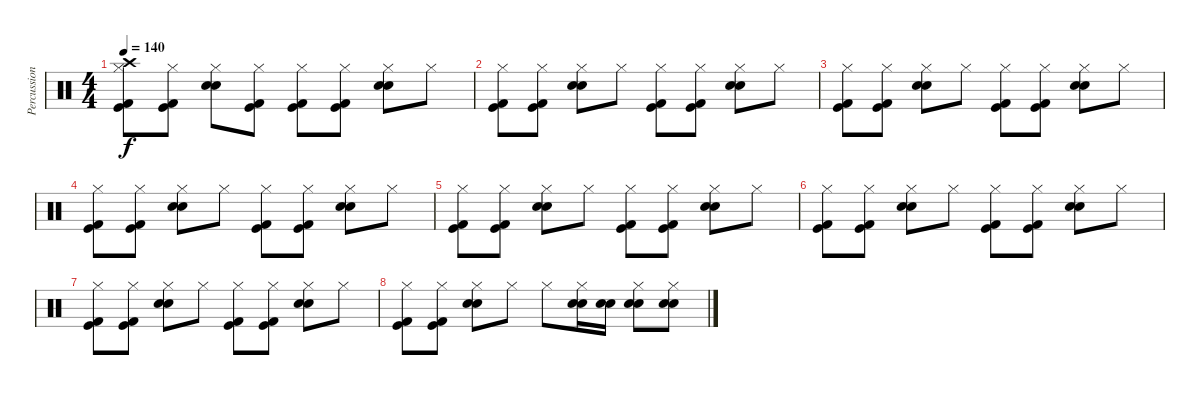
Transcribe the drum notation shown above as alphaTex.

\track ("Percussion" "Percussion") {instrument percussion}
\staff {score}
\articulation defaults
\ts (4 4)
\tempo 140
\clef neutral
\ks c
("Hi-Hat (closed)" "Crash high (hit)" "Kick (hit) 2" "Kick (hit)").8{dy f} ("Hi-Hat (closed)" "Kick (hit) 2" "Kick (hit)").8 ("Hi-Hat (closed)" "Electric Snare (hit)" "Snare (hit) 2").8 ("Hi-Hat (closed)" "Kick (hit) 2" "Kick (hit)").8 ("Hi-Hat (closed)" "Kick (hit) 2" "Kick (hit)").8 ("Hi-Hat (closed)" "Kick (hit) 2" "Kick (hit)").8 ("Hi-Hat (closed)" "Electric Snare (hit)" "Snare (hit) 2").8 "Hi-Hat (closed)".8 |
("Hi-Hat (closed)" "Kick (hit) 2" "Kick (hit)").8 ("Hi-Hat (closed)" "Kick (hit) 2" "Kick (hit)").8 ("Hi-Hat (closed)" "Electric Snare (hit)" "Snare (hit) 2").8 "Hi-Hat (closed)".8 ("Hi-Hat (closed)" "Kick (hit) 2" "Kick (hit)").8 ("Hi-Hat (closed)" "Kick (hit) 2" "Kick (hit)").8 ("Hi-Hat (closed)" "Electric Snare (hit)" "Snare (hit) 2").8 "Hi-Hat (closed)".8 |
("Hi-Hat (closed)" "Kick (hit) 2" "Kick (hit)").8 ("Hi-Hat (closed)" "Kick (hit) 2" "Kick (hit)").8 ("Hi-Hat (closed)" "Electric Snare (hit)" "Snare (hit) 2").8 "Hi-Hat (closed)".8 ("Hi-Hat (closed)" "Kick (hit) 2" "Kick (hit)").8 ("Hi-Hat (closed)" "Kick (hit) 2" "Kick (hit)").8 ("Hi-Hat (closed)" "Electric Snare (hit)" "Snare (hit) 2").8 "Hi-Hat (closed)".8 |
("Hi-Hat (closed)" "Kick (hit) 2" "Kick (hit)").8 ("Hi-Hat (closed)" "Kick (hit) 2" "Kick (hit)").8 ("Hi-Hat (closed)" "Electric Snare (hit)" "Snare (hit) 2").8 "Hi-Hat (closed)".8 ("Hi-Hat (closed)" "Kick (hit) 2" "Kick (hit)").8 ("Hi-Hat (closed)" "Kick (hit) 2" "Kick (hit)").8 ("Hi-Hat (closed)" "Electric Snare (hit)" "Snare (hit) 2").8 "Hi-Hat (closed)".8 |
("Hi-Hat (closed)" "Kick (hit) 2" "Kick (hit)").8 ("Hi-Hat (closed)" "Kick (hit) 2" "Kick (hit)").8 ("Hi-Hat (closed)" "Electric Snare (hit)" "Snare (hit) 2").8 "Hi-Hat (closed)".8 ("Hi-Hat (closed)" "Kick (hit) 2" "Kick (hit)").8 ("Hi-Hat (closed)" "Kick (hit) 2" "Kick (hit)").8 ("Hi-Hat (closed)" "Electric Snare (hit)" "Snare (hit) 2").8 "Hi-Hat (closed)".8 |
("Hi-Hat (closed)" "Kick (hit) 2" "Kick (hit)").8 ("Hi-Hat (closed)" "Kick (hit) 2" "Kick (hit)").8 ("Hi-Hat (closed)" "Electric Snare (hit)" "Snare (hit) 2").8 "Hi-Hat (closed)".8 ("Hi-Hat (closed)" "Kick (hit) 2" "Kick (hit)").8 ("Hi-Hat (closed)" "Kick (hit) 2" "Kick (hit)").8 ("Hi-Hat (closed)" "Electric Snare (hit)" "Snare (hit) 2").8 "Hi-Hat (closed)".8 |
("Hi-Hat (closed)" "Kick (hit) 2" "Kick (hit)").8 ("Hi-Hat (closed)" "Kick (hit) 2" "Kick (hit)").8 ("Hi-Hat (closed)" "Electric Snare (hit)" "Snare (hit) 2").8 "Hi-Hat (closed)".8 ("Hi-Hat (closed)" "Kick (hit) 2" "Kick (hit)").8 ("Hi-Hat (closed)" "Kick (hit) 2" "Kick (hit)").8 ("Hi-Hat (closed)" "Electric Snare (hit)" "Snare (hit) 2").8 "Hi-Hat (closed)".8 |
("Hi-Hat (closed)" "Kick (hit) 2" "Kick (hit)").8 ("Hi-Hat (closed)" "Kick (hit) 2" "Kick (hit)").8 ("Hi-Hat (closed)" "Electric Snare (hit)" "Snare (hit) 2").8 "Hi-Hat (closed)".8 "Hi-Hat (closed)".8 ("Hi-Hat (closed)" "Electric Snare (hit)" "Snare (hit) 2").16 ("Electric Snare (hit)" "Snare (hit) 2").16 ("Hi-Hat (closed)" "Electric Snare (hit)" "Snare (hit) 2").8 ("Hi-Hat (closed)" "Electric Snare (hit)" "Snare (hit) 2").8
